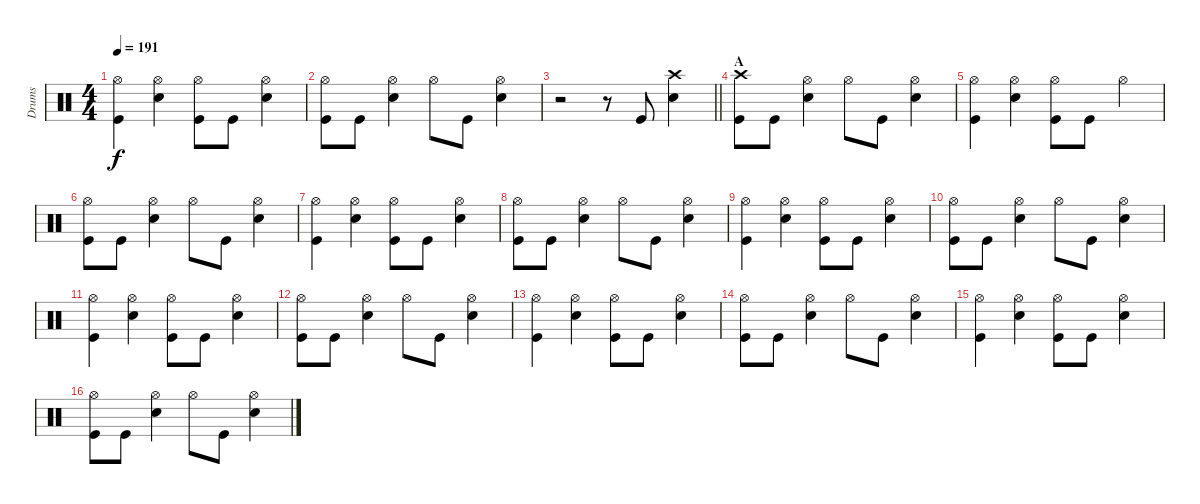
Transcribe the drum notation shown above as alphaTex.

\track ("Drums" "Drums") {instrument percussion}
\staff {score}
\articulation defaults
\ts (4 4)
\tempo 191
\clef neutral
\ks c
("Hi-Hat (open)" "Kick (hit)").4{dy f} ("Hi-Hat (open)" "Electric Snare (hit)").4 ("Hi-Hat (open)" "Kick (hit)").8 "Kick (hit)".8 ("Hi-Hat (open)" "Electric Snare (hit)").4 |
("Hi-Hat (open)" "Kick (hit)").8 "Kick (hit)".8 ("Hi-Hat (open)" "Electric Snare (hit)").4 "Hi-Hat (open)".8 "Kick (hit)".8 ("Hi-Hat (open)" "Electric Snare (hit)").4 |
\barLineRight lightlight
r.2 r.8 "Kick (hit)".8 ("Crash high (hit)" "Electric Snare (hit)").4 |
\section ("" "A")
("Crash high (hit)" "Kick (hit)").8 "Kick (hit)".8 ("Hi-Hat (open)" "Electric Snare (hit)").4 "Hi-Hat (open)".8 "Kick (hit)".8 ("Hi-Hat (open)" "Electric Snare (hit)").4 |
("Hi-Hat (open)" "Kick (hit)").4 ("Hi-Hat (open)" "Electric Snare (hit)").4 ("Hi-Hat (open)" "Kick (hit)").8 "Kick (hit)".8 "Hi-Hat (open)".4 |
("Hi-Hat (open)" "Kick (hit)").8 "Kick (hit)".8 ("Hi-Hat (open)" "Electric Snare (hit)").4 "Hi-Hat (open)".8 "Kick (hit)".8 ("Hi-Hat (open)" "Electric Snare (hit)").4 |
("Hi-Hat (open)" "Kick (hit)").4 ("Hi-Hat (open)" "Electric Snare (hit)").4 ("Hi-Hat (open)" "Kick (hit)").8 "Kick (hit)".8 ("Hi-Hat (open)" "Electric Snare (hit)").4 |
("Hi-Hat (open)" "Kick (hit)").8 "Kick (hit)".8 ("Hi-Hat (open)" "Electric Snare (hit)").4 "Hi-Hat (open)".8 "Kick (hit)".8 ("Hi-Hat (open)" "Electric Snare (hit)").4 |
("Hi-Hat (open)" "Kick (hit)").4 ("Hi-Hat (open)" "Electric Snare (hit)").4 ("Hi-Hat (open)" "Kick (hit)").8 "Kick (hit)".8 ("Hi-Hat (open)" "Electric Snare (hit)").4 |
("Hi-Hat (open)" "Kick (hit)").8 "Kick (hit)".8 ("Hi-Hat (open)" "Electric Snare (hit)").4 "Hi-Hat (open)".8 "Kick (hit)".8 ("Hi-Hat (open)" "Electric Snare (hit)").4 |
("Hi-Hat (open)" "Kick (hit)").4 ("Hi-Hat (open)" "Electric Snare (hit)").4 ("Hi-Hat (open)" "Kick (hit)").8 "Kick (hit)".8 ("Hi-Hat (open)" "Electric Snare (hit)").4 |
("Hi-Hat (open)" "Kick (hit)").8 "Kick (hit)".8 ("Hi-Hat (open)" "Electric Snare (hit)").4 "Hi-Hat (open)".8 "Kick (hit)".8 ("Hi-Hat (open)" "Electric Snare (hit)").4 |
("Hi-Hat (open)" "Kick (hit)").4 ("Hi-Hat (open)" "Electric Snare (hit)").4 ("Hi-Hat (open)" "Kick (hit)").8 "Kick (hit)".8 ("Hi-Hat (open)" "Electric Snare (hit)").4 |
("Hi-Hat (open)" "Kick (hit)").8 "Kick (hit)".8 ("Hi-Hat (open)" "Electric Snare (hit)").4 "Hi-Hat (open)".8 "Kick (hit)".8 ("Hi-Hat (open)" "Electric Snare (hit)").4 |
("Hi-Hat (open)" "Kick (hit)").4 ("Hi-Hat (open)" "Electric Snare (hit)").4 ("Hi-Hat (open)" "Kick (hit)").8 "Kick (hit)".8 ("Hi-Hat (open)" "Electric Snare (hit)").4 |
("Hi-Hat (open)" "Kick (hit)").8 "Kick (hit)".8 ("Hi-Hat (open)" "Electric Snare (hit)").4 "Hi-Hat (open)".8 "Kick (hit)".8 ("Hi-Hat (open)" "Electric Snare (hit)").4
